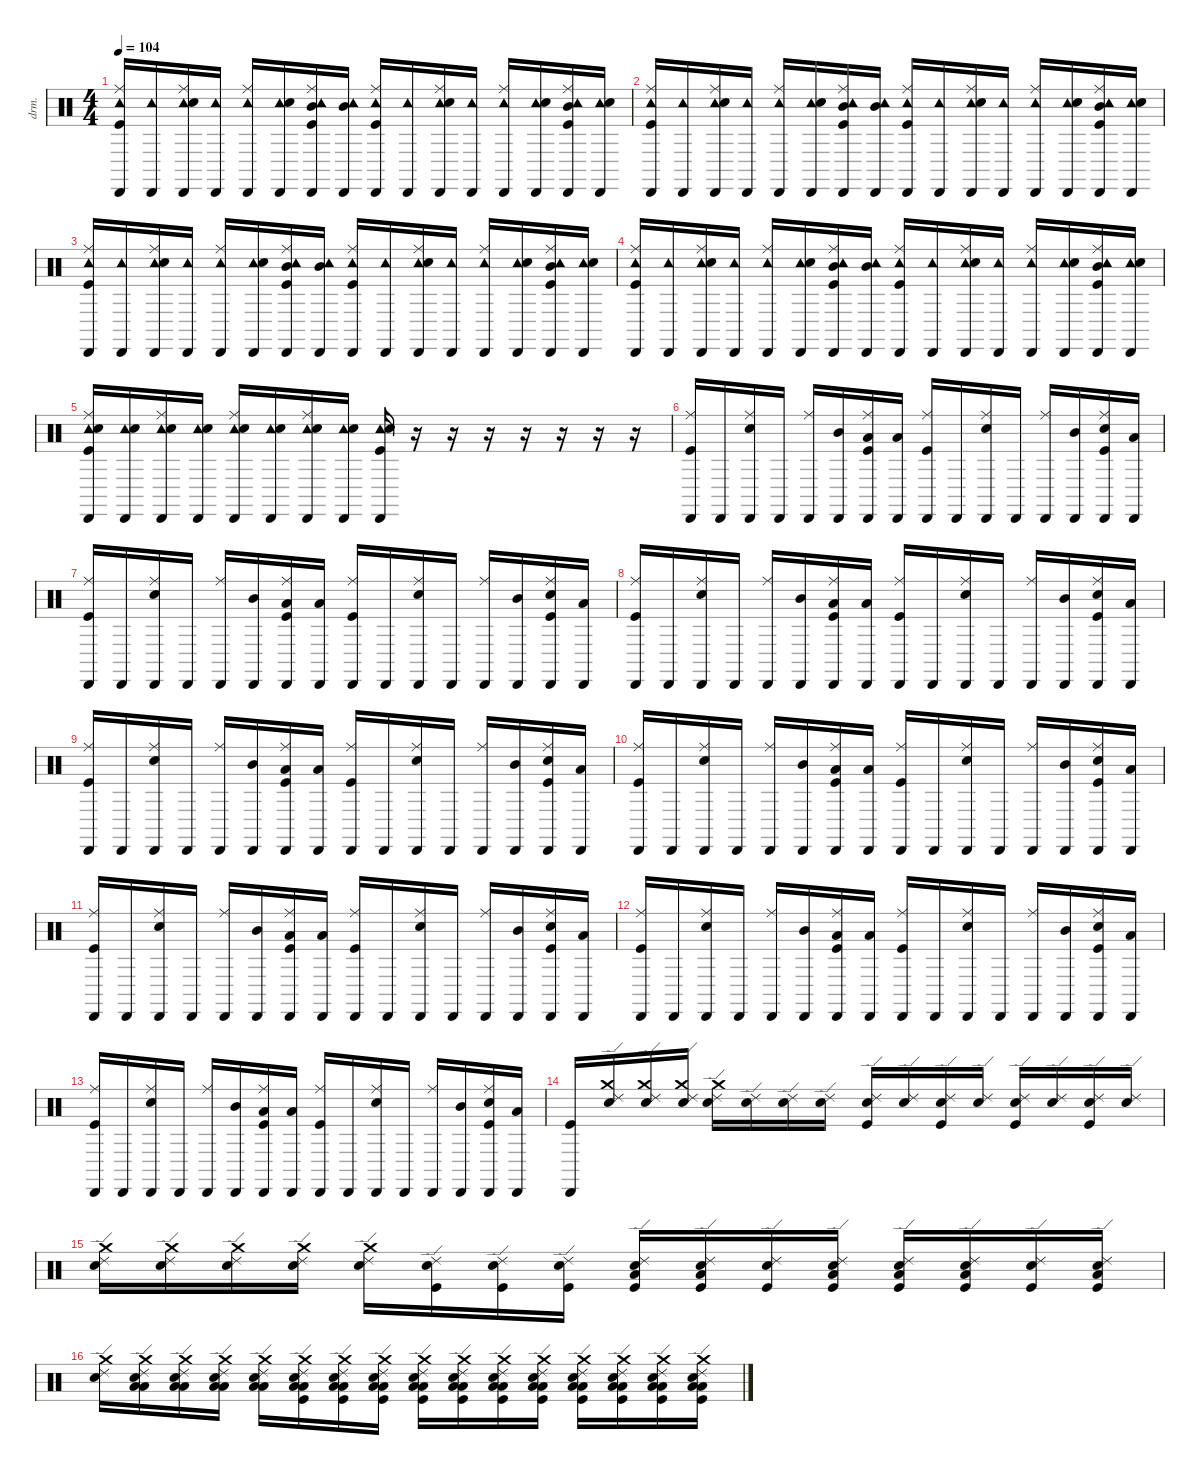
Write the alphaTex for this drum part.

\defaultSystemsLayout 4
\hideDynamics
\bracketExtendMode nobrackets
\otherSystemsTrackNameOrientation horizontal
\track ("Drums" "drm.") {instrument percussion}
\staff {score}
\articulation defaults
\ts (4 4)
\tempo 104
\clef neutral
\ks c
("Cabasa (hit)" "Ride (middle)" "Tambourine (hit)" "Kick (hit)").16{dy f beam Up} ("Cabasa (hit)" "Tambourine (hit)").16{beam Up} ("Cabasa (hit)" "Ride (middle)" "Tambourine (hit)" "Snare (hit) 2").16{beam Up} ("Cabasa (hit)" "Tambourine (hit)").16{beam Up} ("Cabasa (hit)" "Ride (middle)" "Tambourine (hit)").16{beam Up} ("Cabasa (hit)" "Tambourine (hit)" "Snare (hit) 2").16{beam Up} ("Cabasa (hit)" "Ride (middle)" "Tambourine (hit)" "Mid Tom (hit)" "Kick (hit)").16{beam Up} ("Cabasa (hit)" "Tambourine (hit)" "Mid Tom (hit)").16{beam Up} ("Cabasa (hit)" "Ride (middle)" "Tambourine (hit)" "Kick (hit)").16{beam Up} ("Cabasa (hit)" "Tambourine (hit)").16{beam Up} ("Cabasa (hit)" "Ride (middle)" "Tambourine (hit)" "Snare (hit) 2").16{beam Up} ("Cabasa (hit)" "Tambourine (hit)").16{beam Up} ("Cabasa (hit)" "Ride (middle)" "Tambourine (hit)").16{beam Up} ("Cabasa (hit)" "Tambourine (hit)" "Snare (hit) 2").16{beam Up} ("Cabasa (hit)" "Ride (middle)" "Tambourine (hit)" "Mid Tom (hit)" "Kick (hit)").16{beam Up} ("Cabasa (hit)" "Tambourine (hit)" "Snare (hit) 2").16{beam Up} |
("Cabasa (hit)" "Ride (middle)" "Tambourine (hit)" "Kick (hit)").16{beam Up} ("Cabasa (hit)" "Tambourine (hit)").16{beam Up} ("Cabasa (hit)" "Ride (middle)" "Tambourine (hit)" "Snare (hit) 2").16{beam Up} ("Cabasa (hit)" "Tambourine (hit)").16{beam Up} ("Cabasa (hit)" "Ride (middle)" "Tambourine (hit)").16{beam Up} ("Cabasa (hit)" "Tambourine (hit)" "Snare (hit) 2").16{beam Up} ("Cabasa (hit)" "Ride (middle)" "Tambourine (hit)" "Mid Tom (hit)" "Kick (hit)").16{beam Up} ("Cabasa (hit)" "Tambourine (hit)" "Mid Tom (hit)").16{beam Up} ("Cabasa (hit)" "Ride (middle)" "Tambourine (hit)" "Kick (hit)").16{beam Up} ("Cabasa (hit)" "Tambourine (hit)").16{beam Up} ("Cabasa (hit)" "Ride (middle)" "Tambourine (hit)" "Snare (hit) 2").16{beam Up} ("Cabasa (hit)" "Tambourine (hit)").16{beam Up} ("Cabasa (hit)" "Ride (middle)" "Tambourine (hit)").16{beam Up} ("Cabasa (hit)" "Tambourine (hit)" "Snare (hit) 2").16{beam Up} ("Cabasa (hit)" "Ride (middle)" "Tambourine (hit)" "Mid Tom (hit)" "Kick (hit)").16{beam Up} ("Cabasa (hit)" "Tambourine (hit)" "Snare (hit) 2").16{beam Up} |
("Cabasa (hit)" "Ride (middle)" "Tambourine (hit)" "Kick (hit)").16{beam Up} ("Cabasa (hit)" "Tambourine (hit)").16{beam Up} ("Cabasa (hit)" "Ride (middle)" "Tambourine (hit)" "Snare (hit) 2").16{beam Up} ("Cabasa (hit)" "Tambourine (hit)").16{beam Up} ("Cabasa (hit)" "Ride (middle)" "Tambourine (hit)").16{beam Up} ("Cabasa (hit)" "Tambourine (hit)" "Snare (hit) 2").16{beam Up} ("Cabasa (hit)" "Ride (middle)" "Tambourine (hit)" "Mid Tom (hit)" "Kick (hit)").16{beam Up} ("Cabasa (hit)" "Tambourine (hit)" "Mid Tom (hit)").16{beam Up} ("Cabasa (hit)" "Ride (middle)" "Tambourine (hit)" "Kick (hit)").16{beam Up} ("Cabasa (hit)" "Tambourine (hit)").16{beam Up} ("Cabasa (hit)" "Ride (middle)" "Tambourine (hit)" "Snare (hit) 2").16{beam Up} ("Cabasa (hit)" "Tambourine (hit)").16{beam Up} ("Cabasa (hit)" "Ride (middle)" "Tambourine (hit)").16{beam Up} ("Cabasa (hit)" "Tambourine (hit)" "Snare (hit) 2").16{beam Up} ("Cabasa (hit)" "Ride (middle)" "Tambourine (hit)" "Mid Tom (hit)" "Kick (hit)").16{beam Up} ("Cabasa (hit)" "Tambourine (hit)" "Snare (hit) 2").16{beam Up} |
("Cabasa (hit)" "Ride (middle)" "Tambourine (hit)" "Kick (hit)").16{beam Up} ("Cabasa (hit)" "Tambourine (hit)").16{beam Up} ("Cabasa (hit)" "Ride (middle)" "Tambourine (hit)" "Snare (hit) 2").16{beam Up} ("Cabasa (hit)" "Tambourine (hit)").16{beam Up} ("Cabasa (hit)" "Ride (middle)" "Tambourine (hit)").16{beam Up} ("Cabasa (hit)" "Tambourine (hit)" "Snare (hit) 2").16{beam Up} ("Cabasa (hit)" "Ride (middle)" "Tambourine (hit)" "Mid Tom (hit)" "Kick (hit)").16{beam Up} ("Cabasa (hit)" "Tambourine (hit)" "Mid Tom (hit)").16{beam Up} ("Cabasa (hit)" "Ride (middle)" "Tambourine (hit)" "Kick (hit)").16{beam Up} ("Cabasa (hit)" "Tambourine (hit)").16{beam Up} ("Cabasa (hit)" "Ride (middle)" "Tambourine (hit)" "Snare (hit) 2").16{beam Up} ("Cabasa (hit)" "Tambourine (hit)").16{beam Up} ("Cabasa (hit)" "Ride (middle)" "Tambourine (hit)").16{beam Up} ("Cabasa (hit)" "Tambourine (hit)" "Snare (hit) 2").16{beam Up} ("Cabasa (hit)" "Ride (middle)" "Tambourine (hit)" "Mid Tom (hit)" "Kick (hit)").16{beam Up} ("Cabasa (hit)" "Tambourine (hit)" "Snare (hit) 2").16{beam Up} |
("Cabasa (hit)" "Ride (middle)" "Tambourine (hit)" "Snare (hit) 2" "Kick (hit)").16{beam Up} ("Cabasa (hit)" "Tambourine (hit)" "Snare (hit) 2").16{beam Up} ("Cabasa (hit)" "Ride (middle)" "Tambourine (hit)" "Snare (hit) 2").16{beam Up} ("Cabasa (hit)" "Tambourine (hit)" "Snare (hit) 2").16{beam Up} ("Cabasa (hit)" "Ride (middle)" "Tambourine (hit)" "Snare (hit) 2").16{beam Up} ("Cabasa (hit)" "Tambourine (hit)" "Snare (hit) 2").16{beam Up} ("Cabasa (hit)" "Ride (middle)" "Tambourine (hit)" "Snare (hit) 2").16{beam Up} ("Cabasa (hit)" "Tambourine (hit)" "Snare (hit) 2").16{beam Up} ("Cabasa (hit)" "Tambourine (hit)" "Snare (hit) 2" "Kick (hit)").16{beam Up} r.16{beam Up} r.16{beam Up} r.16{beam Up} r.16{beam Up} r.16{beam Up} r.16{beam Up} r.16{beam Up} |
("Cabasa (hit)" "Ride (middle)" "Kick (hit)").16{beam Up} "Cabasa (hit)".16{beam Up} ("Cabasa (hit)" "Ride (middle)" "Snare (hit) 2").16{beam Up} "Cabasa (hit)".16{beam Up} ("Cabasa (hit)" "Ride (middle)").16{beam Up} ("Cabasa (hit)" "Mid Tom (hit)").16{beam Up} ("Cabasa (hit)" "Ride (middle)" "Low Tom (hit)" "Kick (hit)").16{beam Up} ("Cabasa (hit)" "Low Tom (hit)").16{beam Up} ("Cabasa (hit)" "Ride (middle)" "Kick (hit)").16{beam Up} "Cabasa (hit)".16{beam Up} ("Cabasa (hit)" "Ride (middle)" "Snare (hit) 2").16{beam Up} "Cabasa (hit)".16{beam Up} ("Cabasa (hit)" "Ride (middle)").16{beam Up} ("Cabasa (hit)" "Mid Tom (hit)").16{beam Up} ("Cabasa (hit)" "Ride (middle)" "Snare (hit) 2" "Kick (hit)").16{beam Up} ("Cabasa (hit)" "Low Tom (hit)").16{beam Up} |
("Cabasa (hit)" "Ride (middle)" "Kick (hit)").16{beam Up} "Cabasa (hit)".16{beam Up} ("Cabasa (hit)" "Ride (middle)" "Snare (hit) 2").16{beam Up} "Cabasa (hit)".16{beam Up} ("Cabasa (hit)" "Ride (middle)").16{beam Up} ("Cabasa (hit)" "Mid Tom (hit)").16{beam Up} ("Cabasa (hit)" "Ride (middle)" "Low Tom (hit)" "Kick (hit)").16{beam Up} ("Cabasa (hit)" "Low Tom (hit)").16{beam Up} ("Cabasa (hit)" "Ride (middle)" "Kick (hit)").16{beam Up} "Cabasa (hit)".16{beam Up} ("Cabasa (hit)" "Ride (middle)" "Snare (hit) 2").16{beam Up} "Cabasa (hit)".16{beam Up} ("Cabasa (hit)" "Ride (middle)").16{beam Up} ("Cabasa (hit)" "Mid Tom (hit)").16{beam Up} ("Cabasa (hit)" "Ride (middle)" "Snare (hit) 2" "Kick (hit)").16{beam Up} ("Cabasa (hit)" "Low Tom (hit)").16{beam Up} |
("Cabasa (hit)" "Ride (middle)" "Kick (hit)").16{beam Up} "Cabasa (hit)".16{beam Up} ("Cabasa (hit)" "Ride (middle)" "Snare (hit) 2").16{beam Up} "Cabasa (hit)".16{beam Up} ("Cabasa (hit)" "Ride (middle)").16{beam Up} ("Cabasa (hit)" "Mid Tom (hit)").16{beam Up} ("Cabasa (hit)" "Ride (middle)" "Low Tom (hit)" "Kick (hit)").16{beam Up} ("Cabasa (hit)" "Low Tom (hit)").16{beam Up} ("Cabasa (hit)" "Ride (middle)" "Kick (hit)").16{beam Up} "Cabasa (hit)".16{beam Up} ("Cabasa (hit)" "Ride (middle)" "Snare (hit) 2").16{beam Up} "Cabasa (hit)".16{beam Up} ("Cabasa (hit)" "Ride (middle)").16{beam Up} ("Cabasa (hit)" "Mid Tom (hit)").16{beam Up} ("Cabasa (hit)" "Ride (middle)" "Snare (hit) 2" "Kick (hit)").16{beam Up} ("Cabasa (hit)" "Low Tom (hit)").16{beam Up} |
("Cabasa (hit)" "Ride (middle)" "Kick (hit)").16{beam Up} "Cabasa (hit)".16{beam Up} ("Cabasa (hit)" "Ride (middle)" "Snare (hit) 2").16{beam Up} "Cabasa (hit)".16{beam Up} ("Cabasa (hit)" "Ride (middle)").16{beam Up} ("Cabasa (hit)" "Mid Tom (hit)").16{beam Up} ("Cabasa (hit)" "Ride (middle)" "Low Tom (hit)" "Kick (hit)").16{beam Up} ("Cabasa (hit)" "Low Tom (hit)").16{beam Up} ("Cabasa (hit)" "Ride (middle)" "Kick (hit)").16{beam Up} "Cabasa (hit)".16{beam Up} ("Cabasa (hit)" "Ride (middle)" "Snare (hit) 2").16{beam Up} "Cabasa (hit)".16{beam Up} ("Cabasa (hit)" "Ride (middle)").16{beam Up} ("Cabasa (hit)" "Mid Tom (hit)").16{beam Up} ("Cabasa (hit)" "Ride (middle)" "Snare (hit) 2" "Kick (hit)").16{beam Up} ("Cabasa (hit)" "Low Tom (hit)").16{beam Up} |
("Cabasa (hit)" "Ride (middle)" "Kick (hit)").16{beam Up} "Cabasa (hit)".16{beam Up} ("Cabasa (hit)" "Ride (middle)" "Snare (hit) 2").16{beam Up} "Cabasa (hit)".16{beam Up} ("Cabasa (hit)" "Ride (middle)").16{beam Up} ("Cabasa (hit)" "Mid Tom (hit)").16{beam Up} ("Cabasa (hit)" "Ride (middle)" "Low Tom (hit)" "Kick (hit)").16{beam Up} ("Cabasa (hit)" "Low Tom (hit)").16{beam Up} ("Cabasa (hit)" "Ride (middle)" "Kick (hit)").16{beam Up} "Cabasa (hit)".16{beam Up} ("Cabasa (hit)" "Ride (middle)" "Snare (hit) 2").16{beam Up} "Cabasa (hit)".16{beam Up} ("Cabasa (hit)" "Ride (middle)").16{beam Up} ("Cabasa (hit)" "Mid Tom (hit)").16{beam Up} ("Cabasa (hit)" "Ride (middle)" "Snare (hit) 2" "Kick (hit)").16{beam Up} ("Cabasa (hit)" "Low Tom (hit)").16{beam Up} |
("Cabasa (hit)" "Ride (middle)" "Kick (hit)").16{beam Up} "Cabasa (hit)".16{beam Up} ("Cabasa (hit)" "Ride (middle)" "Snare (hit) 2").16{beam Up} "Cabasa (hit)".16{beam Up} ("Cabasa (hit)" "Ride (middle)").16{beam Up} ("Cabasa (hit)" "Mid Tom (hit)").16{beam Up} ("Cabasa (hit)" "Ride (middle)" "Low Tom (hit)" "Kick (hit)").16{beam Up} ("Cabasa (hit)" "Low Tom (hit)").16{beam Up} ("Cabasa (hit)" "Ride (middle)" "Kick (hit)").16{beam Up} "Cabasa (hit)".16{beam Up} ("Cabasa (hit)" "Ride (middle)" "Snare (hit) 2").16{beam Up} "Cabasa (hit)".16{beam Up} ("Cabasa (hit)" "Ride (middle)").16{beam Up} ("Cabasa (hit)" "Mid Tom (hit)").16{beam Up} ("Cabasa (hit)" "Ride (middle)" "Snare (hit) 2" "Kick (hit)").16{beam Up} ("Cabasa (hit)" "Low Tom (hit)").16{beam Up} |
("Cabasa (hit)" "Ride (middle)" "Kick (hit)").16{beam Up} "Cabasa (hit)".16{beam Up} ("Cabasa (hit)" "Ride (middle)" "Snare (hit) 2").16{beam Up} "Cabasa (hit)".16{beam Up} ("Cabasa (hit)" "Ride (middle)").16{beam Up} ("Cabasa (hit)" "Mid Tom (hit)").16{beam Up} ("Cabasa (hit)" "Ride (middle)" "Low Tom (hit)" "Kick (hit)").16{beam Up} ("Cabasa (hit)" "Low Tom (hit)").16{beam Up} ("Cabasa (hit)" "Ride (middle)" "Kick (hit)").16{beam Up} "Cabasa (hit)".16{beam Up} ("Cabasa (hit)" "Ride (middle)" "Snare (hit) 2").16{beam Up} "Cabasa (hit)".16{beam Up} ("Cabasa (hit)" "Ride (middle)").16{beam Up} ("Cabasa (hit)" "Mid Tom (hit)").16{beam Up} ("Cabasa (hit)" "Ride (middle)" "Snare (hit) 2" "Kick (hit)").16{beam Up} ("Cabasa (hit)" "Low Tom (hit)").16{beam Up} |
("Cabasa (hit)" "Ride (middle)" "Kick (hit)").16{beam Up} "Cabasa (hit)".16{beam Up} ("Cabasa (hit)" "Ride (middle)" "Snare (hit) 2").16{beam Up} "Cabasa (hit)".16{beam Up} ("Cabasa (hit)" "Ride (middle)").16{beam Up} ("Cabasa (hit)" "Mid Tom (hit)").16{beam Up} ("Cabasa (hit)" "Ride (middle)" "Low Tom (hit)" "Kick (hit)").16{beam Up} ("Cabasa (hit)" "Low Tom (hit)").16{beam Up} ("Cabasa (hit)" "Ride (middle)" "Kick (hit)").16{beam Up} "Cabasa (hit)".16{beam Up} ("Cabasa (hit)" "Ride (middle)" "Snare (hit) 2").16{beam Up} "Cabasa (hit)".16{beam Up} ("Cabasa (hit)" "Ride (middle)").16{beam Up} ("Cabasa (hit)" "Mid Tom (hit)").16{beam Up} ("Cabasa (hit)" "Ride (middle)" "Snare (hit) 2" "Kick (hit)").16{beam Up} ("Cabasa (hit)" "Low Tom (hit)").16{beam Up} |
("Cabasa (hit)" "Kick (hit)").16{beam Up} ("Ride (edge) 2" "Crash medium (hit)" "Snare (hit) 2").16{beam Up} ("Ride (edge) 2" "Crash medium (hit)" "Snare (hit) 2").16{beam Up} ("Ride (edge) 2" "Crash medium (hit)" "Snare (hit) 2").16{beam Up} ("Ride (edge) 2" "Crash medium (hit)" "Snare (hit) 2").16{beam Down} ("Ride (edge) 2" "Snare (hit) 2").16{beam Down} ("Ride (edge) 2" "Snare (hit) 2").16{beam Down} ("Ride (edge) 2" "Snare (hit) 2").16{beam Down} ("Ride (edge) 2" "Snare (hit) 2" "Kick (hit)").16{beam Up} ("Ride (edge) 2" "Snare (hit) 2").16{beam Up} ("Ride (edge) 2" "Snare (hit) 2" "Kick (hit)").16{beam Up} ("Ride (edge) 2" "Snare (hit) 2").16{beam Up} ("Ride (edge) 2" "Snare (hit) 2" "Kick (hit)").16{beam Up} ("Ride (edge) 2" "Snare (hit) 2").16{beam Up} ("Ride (edge) 2" "Snare (hit) 2" "Kick (hit)").16{beam Up} ("Ride (edge) 2" "Snare (hit) 2").16{beam Up} |
("Ride (edge) 2" "Crash medium (hit)" "Snare (hit) 2").16{beam Down} ("Ride (edge) 2" "Crash medium (hit)" "Snare (hit) 2").16{beam Down} ("Ride (edge) 2" "Crash medium (hit)" "Snare (hit) 2").16{beam Down} ("Ride (edge) 2" "Crash medium (hit)" "Snare (hit) 2").16{beam Down} ("Ride (edge) 2" "Crash medium (hit)" "Snare (hit) 2").16{beam Down} ("Ride (edge) 2" "Snare (hit) 2" "Kick (hit)").16{beam Down} ("Ride (edge) 2" "Snare (hit) 2" "Kick (hit)").16{beam Down} ("Ride (edge) 2" "Snare (hit) 2" "Kick (hit)").16{beam Down} ("Ride (edge) 2" "Low Tom (hit)" "Snare (hit) 2" "Kick (hit)").16{beam Up} ("Ride (edge) 2" "Low Tom (hit)" "Snare (hit) 2" "Kick (hit)").16{beam Up} ("Ride (edge) 2" "Snare (hit) 2" "Kick (hit)").16{beam Up} ("Ride (edge) 2" "Low Tom (hit)" "Snare (hit) 2" "Kick (hit)").16{beam Up} ("Ride (edge) 2" "Low Tom (hit)" "Snare (hit) 2" "Kick (hit)").16{beam Up} ("Ride (edge) 2" "Low Tom (hit)" "Snare (hit) 2" "Kick (hit)").16{beam Up} ("Ride (edge) 2" "Snare (hit) 2" "Kick (hit)").16{beam Up} ("Ride (edge) 2" "Low Tom (hit)" "Snare (hit) 2" "Kick (hit)").16{beam Up} |
("Ride (edge) 2" "Crash medium (hit)" "Snare (hit) 2").16{beam Down} ("Low Floor Tom (hit)" "Ride (edge) 2" "Crash medium (hit)" "Low Tom (hit)" "Snare (hit) 2").16{beam Down} ("Low Floor Tom (hit)" "Ride (edge) 2" "Crash medium (hit)" "Low Tom (hit)" "Snare (hit) 2").16{beam Down} ("Low Floor Tom (hit)" "Ride (edge) 2" "Crash medium (hit)" "Low Tom (hit)" "Snare (hit) 2").16{beam Down} ("Low Floor Tom (hit)" "Ride (edge) 2" "Crash medium (hit)" "Low Tom (hit)" "Snare (hit) 2").16{beam Down} ("Low Floor Tom (hit)" "Ride (edge) 2" "Crash medium (hit)" "Low Tom (hit)" "Snare (hit) 2" "Kick (hit)").16{beam Down} ("Low Floor Tom (hit)" "Ride (edge) 2" "Crash medium (hit)" "Low Tom (hit)" "Snare (hit) 2" "Kick (hit)").16{beam Down} ("Low Floor Tom (hit)" "Ride (edge) 2" "Crash medium (hit)" "Low Tom (hit)" "Snare (hit) 2" "Kick (hit)").16{beam Down} ("Low Floor Tom (hit)" "Ride (edge) 2" "Crash medium (hit)" "Low Tom (hit)" "Snare (hit) 2" "Kick (hit)").16{beam Down} ("Low Floor Tom (hit)" "Ride (edge) 2" "Crash medium (hit)" "Low Tom (hit)" "Snare (hit) 2" "Kick (hit)").16{beam Down} ("Low Floor Tom (hit)" "Ride (edge) 2" "Crash medium (hit)" "Low Tom (hit)" "Snare (hit) 2" "Kick (hit)").16{beam Down} ("Low Floor Tom (hit)" "Ride (edge) 2" "Crash medium (hit)" "Low Tom (hit)" "Snare (hit) 2" "Kick (hit)").16{beam Down} ("Low Floor Tom (hit)" "Ride (edge) 2" "Crash medium (hit)" "Low Tom (hit)" "Snare (hit) 2" "Kick (hit)").16{beam Down} ("Low Floor Tom (hit)" "Ride (edge) 2" "Crash medium (hit)" "Low Tom (hit)" "Snare (hit) 2" "Kick (hit)").16{beam Down} ("Low Floor Tom (hit)" "Ride (edge) 2" "Crash medium (hit)" "Low Tom (hit)" "Snare (hit) 2" "Kick (hit)").16{beam Down} ("Low Floor Tom (hit)" "Ride (edge) 2" "Crash medium (hit)" "Low Tom (hit)" "Snare (hit) 2" "Kick (hit)").16{beam Down}
